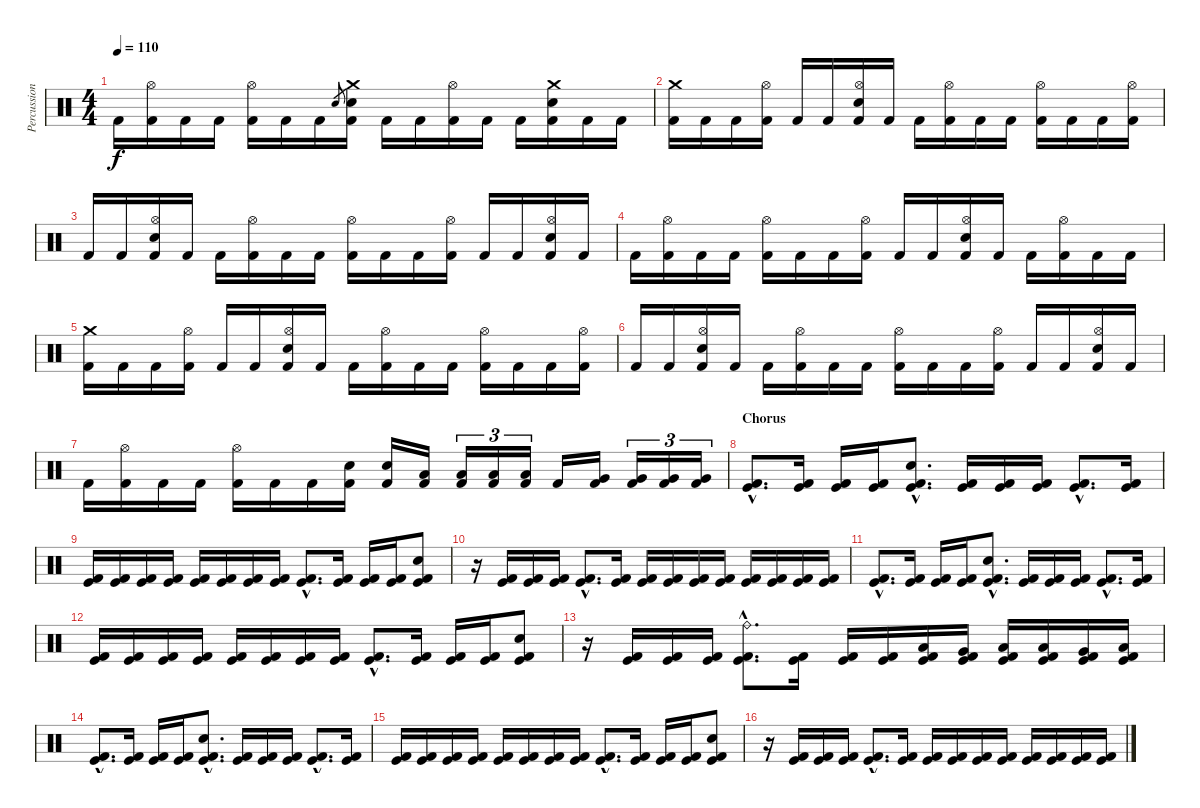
\track ("Percussion" "Percussion") {instrument percussion}
\staff {score}
\articulation defaults
\ts (4 4)
\tempo 110
\clef neutral
\ks c "Kick (hit) 2".16{dy f}
("Hi-Hat (open)" "Kick (hit) 2").16 "Kick (hit) 2".16 "Kick (hit) 2".16 ("Hi-Hat (open)" "Kick (hit) 2").16 "Kick (hit) 2".16 "Kick (hit) 2".16 "Electric Snare (hit)".8{gr} ("Crash medium (hit)" "Electric Snare (hit)" "Kick (hit) 2").16 "Kick (hit) 2".16 "Kick (hit) 2".16 ("Hi-Hat (open)" "Kick (hit) 2").16 "Kick (hit) 2".16 "Kick (hit) 2".16 ("Crash medium (hit)" "Electric Snare (hit)" "Kick (hit) 2").16 "Kick (hit) 2".16 "Kick (hit) 2".16 |
("Crash medium (hit)" "Kick (hit) 2").16 "Kick (hit) 2".16 "Kick (hit) 2".16 ("Hi-Hat (open)" "Kick (hit) 2").16 "Kick (hit) 2".16 "Kick (hit) 2".16 ("Hi-Hat (open)" "Electric Snare (hit)" "Kick (hit) 2").16 "Kick (hit) 2".16 "Kick (hit) 2".16 ("Hi-Hat (open)" "Kick (hit) 2").16 "Kick (hit) 2".16 "Kick (hit) 2".16 ("Hi-Hat (open)" "Kick (hit) 2").16 "Kick (hit) 2".16 "Kick (hit) 2".16 ("Hi-Hat (open)" "Kick (hit) 2").16 |
"Kick (hit) 2".16 "Kick (hit) 2".16 ("Hi-Hat (open)" "Electric Snare (hit)" "Kick (hit) 2").16 "Kick (hit) 2".16 "Kick (hit) 2".16 ("Hi-Hat (open)" "Kick (hit) 2").16 "Kick (hit) 2".16 "Kick (hit) 2".16 ("Hi-Hat (open)" "Kick (hit) 2").16 "Kick (hit) 2".16 "Kick (hit) 2".16 ("Hi-Hat (open)" "Kick (hit) 2").16 "Kick (hit) 2".16 "Kick (hit) 2".16 ("Hi-Hat (open)" "Electric Snare (hit)" "Kick (hit) 2").16 "Kick (hit) 2".16 |
"Kick (hit) 2".16 ("Hi-Hat (open)" "Kick (hit) 2").16 "Kick (hit) 2".16 "Kick (hit) 2".16 ("Hi-Hat (open)" "Kick (hit) 2").16 "Kick (hit) 2".16 "Kick (hit) 2".16 ("Hi-Hat (open)" "Kick (hit) 2").16 "Kick (hit) 2".16 "Kick (hit) 2".16 ("Hi-Hat (open)" "Electric Snare (hit)" "Kick (hit) 2").16 "Kick (hit) 2".16 "Kick (hit) 2".16 ("Hi-Hat (open)" "Kick (hit) 2").16 "Kick (hit) 2".16 "Kick (hit) 2".16 |
("Crash medium (hit)" "Kick (hit) 2").16 "Kick (hit) 2".16 "Kick (hit) 2".16 ("Hi-Hat (open)" "Kick (hit) 2").16 "Kick (hit) 2".16 "Kick (hit) 2".16 ("Hi-Hat (open)" "Electric Snare (hit)" "Kick (hit) 2").16 "Kick (hit) 2".16 "Kick (hit) 2".16 ("Hi-Hat (open)" "Kick (hit) 2").16 "Kick (hit) 2".16 "Kick (hit) 2".16 ("Hi-Hat (open)" "Kick (hit) 2").16 "Kick (hit) 2".16 "Kick (hit) 2".16 ("Hi-Hat (open)" "Kick (hit) 2").16 |
"Kick (hit) 2".16 "Kick (hit) 2".16 ("Hi-Hat (open)" "Electric Snare (hit)" "Kick (hit) 2").16 "Kick (hit) 2".16 "Kick (hit) 2".16 ("Hi-Hat (open)" "Kick (hit) 2").16 "Kick (hit) 2".16 "Kick (hit) 2".16 ("Hi-Hat (open)" "Kick (hit) 2").16 "Kick (hit) 2".16 "Kick (hit) 2".16 ("Hi-Hat (open)" "Kick (hit) 2").16 "Kick (hit) 2".16 "Kick (hit) 2".16 ("Hi-Hat (open)" "Electric Snare (hit)" "Kick (hit) 2").16 "Kick (hit) 2".16 |
"Kick (hit) 2".16 ("Hi-Hat (open)" "Kick (hit) 2").16 "Kick (hit) 2".16 "Kick (hit) 2".16 ("Hi-Hat (open)" "Kick (hit) 2").16 "Kick (hit) 2".16 "Kick (hit) 2".16 ("Electric Snare (hit)" "Kick (hit) 2").16 ("Electric Snare (hit)" "Kick (hit) 2").16 ("Low Tom (hit)" "Kick (hit) 2").16 ("Low Tom (hit)" "Kick (hit) 2").16{tu (3 2)} ("Low Tom (hit)" "Kick (hit) 2").16{tu (3 2)} ("Low Tom (hit)" "Kick (hit) 2").16{tu (3 2)} "Kick (hit) 2".16 ("Very Low Tom (hit)" "Kick (hit) 2").16 ("Very Low Tom (hit)" "Kick (hit) 2").16{tu (3 2)} ("Very Low Tom (hit)" "Kick (hit) 2").16{tu (3 2)} ("Very Low Tom (hit)" "Kick (hit) 2").16{tu (3 2)} |
\section ("" "Chorus")
("Kick (hit)"{hac} "Kick (hit) 2"{hac}).8{d} ("Kick (hit)" "Kick (hit) 2").16 ("Kick (hit)" "Kick (hit) 2").16 ("Kick (hit)" "Kick (hit) 2").16 ("Electric Snare (hit)"{hac} "Kick (hit)"{hac} "Kick (hit) 2"{hac}).8{d} ("Kick (hit)" "Kick (hit) 2").16 ("Kick (hit)" "Kick (hit) 2").16 ("Kick (hit)" "Kick (hit) 2").16 ("Kick (hit)"{hac} "Kick (hit) 2"{hac}).8{d} ("Kick (hit)" "Kick (hit) 2").16 |
("Kick (hit)" "Kick (hit) 2").16 ("Kick (hit)" "Kick (hit) 2").16 ("Kick (hit)" "Kick (hit) 2").16 ("Kick (hit)" "Kick (hit) 2").16 ("Kick (hit)" "Kick (hit) 2").16 ("Kick (hit)" "Kick (hit) 2").16 ("Kick (hit)" "Kick (hit) 2").16 ("Kick (hit)" "Kick (hit) 2").16 ("Kick (hit)"{hac} "Kick (hit) 2"{hac}).8{d} ("Kick (hit)" "Kick (hit) 2").16 ("Kick (hit)" "Kick (hit) 2").16 ("Kick (hit)" "Kick (hit) 2").16 ("Electric Snare (hit)" "Kick (hit)" "Kick (hit) 2").8 |
r.16 ("Kick (hit)" "Kick (hit) 2").16 ("Kick (hit)" "Kick (hit) 2").16 ("Kick (hit)" "Kick (hit) 2").16 ("Kick (hit)"{hac} "Kick (hit) 2"{hac}).8{d} ("Kick (hit)" "Kick (hit) 2").16 ("Kick (hit)" "Kick (hit) 2").16 ("Kick (hit)" "Kick (hit) 2").16 ("Kick (hit)" "Kick (hit) 2").16 ("Kick (hit)" "Kick (hit) 2").16 ("Kick (hit)" "Kick (hit) 2").16 ("Kick (hit)" "Kick (hit) 2").16 ("Kick (hit)" "Kick (hit) 2").16 ("Kick (hit)" "Kick (hit) 2").16 |
("Kick (hit)"{hac} "Kick (hit) 2"{hac}).8{d} ("Kick (hit)" "Kick (hit) 2").16 ("Kick (hit)" "Kick (hit) 2").16 ("Kick (hit)" "Kick (hit) 2").16 ("Electric Snare (hit)"{hac} "Kick (hit)"{hac} "Kick (hit) 2"{hac}).8{d} ("Kick (hit)" "Kick (hit) 2").16 ("Kick (hit)" "Kick (hit) 2").16 ("Kick (hit)" "Kick (hit) 2").16 ("Kick (hit)"{hac} "Kick (hit) 2"{hac}).8{d} ("Kick (hit)" "Kick (hit) 2").16 |
("Kick (hit)" "Kick (hit) 2").16 ("Kick (hit)" "Kick (hit) 2").16 ("Kick (hit)" "Kick (hit) 2").16 ("Kick (hit)" "Kick (hit) 2").16 ("Kick (hit)" "Kick (hit) 2").16 ("Kick (hit)" "Kick (hit) 2").16 ("Kick (hit)" "Kick (hit) 2").16 ("Kick (hit)" "Kick (hit) 2").16 ("Kick (hit)"{hac} "Kick (hit) 2"{hac}).8{d} ("Kick (hit)" "Kick (hit) 2").16 ("Kick (hit)" "Kick (hit) 2").16 ("Kick (hit)" "Kick (hit) 2").16 ("Electric Snare (hit)" "Kick (hit)" "Kick (hit) 2").8 |
r.16 ("Kick (hit)" "Kick (hit) 2").16 ("Kick (hit)" "Kick (hit) 2").16 ("Kick (hit)" "Kick (hit) 2").16 ("Ride (bell)"{hac} "Kick (hit)"{hac} "Kick (hit) 2"{hac}).8{d} ("Kick (hit)" "Kick (hit) 2").16 ("Kick (hit)" "Kick (hit) 2").16 ("Kick (hit)" "Kick (hit) 2").16 ("Low Tom (hit)" "Kick (hit)" "Kick (hit) 2").16 ("Very Low Tom (hit)" "Kick (hit)" "Kick (hit) 2").16 ("Low Floor Tom (hit)" "Kick (hit)" "Kick (hit) 2").16 ("Low Tom (hit)" "Kick (hit)" "Kick (hit) 2").16 ("Very Low Tom (hit)" "Kick (hit)" "Kick (hit) 2").16 ("Low Floor Tom (hit)" "Kick (hit)" "Kick (hit) 2").16 |
("Kick (hit)"{hac} "Kick (hit) 2"{hac}).8{d} ("Kick (hit)" "Kick (hit) 2").16 ("Kick (hit)" "Kick (hit) 2").16 ("Kick (hit)" "Kick (hit) 2").16 ("Electric Snare (hit)"{hac} "Kick (hit)"{hac} "Kick (hit) 2"{hac}).8{d} ("Kick (hit)" "Kick (hit) 2").16 ("Kick (hit)" "Kick (hit) 2").16 ("Kick (hit)" "Kick (hit) 2").16 ("Kick (hit)"{hac} "Kick (hit) 2"{hac}).8{d} ("Kick (hit)" "Kick (hit) 2").16 |
("Kick (hit)" "Kick (hit) 2").16 ("Kick (hit)" "Kick (hit) 2").16 ("Kick (hit)" "Kick (hit) 2").16 ("Kick (hit)" "Kick (hit) 2").16 ("Kick (hit)" "Kick (hit) 2").16 ("Kick (hit)" "Kick (hit) 2").16 ("Kick (hit)" "Kick (hit) 2").16 ("Kick (hit)" "Kick (hit) 2").16 ("Kick (hit)"{hac} "Kick (hit) 2"{hac}).8{d} ("Kick (hit)" "Kick (hit) 2").16 ("Kick (hit)" "Kick (hit) 2").16 ("Kick (hit)" "Kick (hit) 2").16 ("Electric Snare (hit)" "Kick (hit)" "Kick (hit) 2").8 |
r.16 ("Kick (hit)" "Kick (hit) 2").16 ("Kick (hit)" "Kick (hit) 2").16 ("Kick (hit)" "Kick (hit) 2").16 ("Kick (hit)"{hac} "Kick (hit) 2"{hac}).8{d} ("Kick (hit)" "Kick (hit) 2").16 ("Kick (hit)" "Kick (hit) 2").16 ("Kick (hit)" "Kick (hit) 2").16 ("Kick (hit)" "Kick (hit) 2").16 ("Kick (hit)" "Kick (hit) 2").16 ("Kick (hit)" "Kick (hit) 2").16 ("Kick (hit)" "Kick (hit) 2").16 ("Kick (hit)" "Kick (hit) 2").16 ("Kick (hit)" "Kick (hit) 2").16
